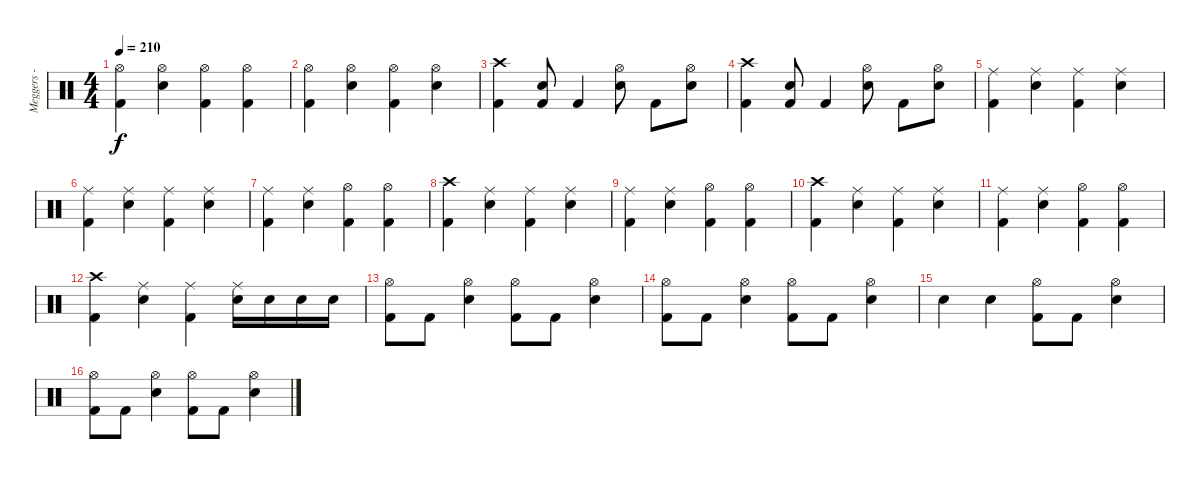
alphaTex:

\track ("Meggers - Drums" "Meggers - ") {instrument percussion}
\staff {score}
\articulation defaults
\ts (4 4)
\tempo 210
\clef neutral
\ks c
("Hi-Hat (open)" "Kick (hit) 2").4{dy f} ("Hi-Hat (open)" "Electric Snare (hit)").4 ("Hi-Hat (open)" "Kick (hit) 2").4 ("Hi-Hat (open)" "Kick (hit) 2").4 |
("Hi-Hat (open)" "Kick (hit) 2").4 ("Hi-Hat (open)" "Electric Snare (hit)").4 ("Hi-Hat (open)" "Kick (hit) 2").4 ("Hi-Hat (open)" "Electric Snare (hit)").4 |
("Crash high (hit)" "Kick (hit) 2").4 ("Electric Snare (hit)" "Kick (hit) 2").8 "Kick (hit) 2".4 ("Hi-Hat (open)" "Electric Snare (hit)").8 "Kick (hit) 2".8 ("Hi-Hat (open)" "Electric Snare (hit)").8 |
("Crash high (hit)" "Kick (hit) 2").4 ("Electric Snare (hit)" "Kick (hit) 2").8 "Kick (hit) 2".4 ("Hi-Hat (open)" "Electric Snare (hit)").8 "Kick (hit) 2".8 ("Hi-Hat (open)" "Electric Snare (hit)").8 |
("Ride (middle)" "Kick (hit) 2").4 ("Ride (middle)" "Electric Snare (hit)").4 ("Ride (middle)" "Kick (hit) 2").4 ("Ride (middle)" "Electric Snare (hit)").4 |
("Ride (middle)" "Kick (hit) 2").4 ("Ride (middle)" "Electric Snare (hit)").4 ("Ride (middle)" "Kick (hit) 2").4 ("Ride (middle)" "Electric Snare (hit)").4 |
("Ride (middle)" "Kick (hit) 2").4 ("Ride (middle)" "Electric Snare (hit)").4 ("Hi-Hat (open)" "Kick (hit) 2").4 ("Hi-Hat (open)" "Kick (hit) 2").4 |
("Crash high (hit)" "Kick (hit) 2").4 ("Ride (middle)" "Electric Snare (hit)").4 ("Ride (middle)" "Kick (hit) 2").4 ("Ride (middle)" "Electric Snare (hit)").4 |
("Ride (middle)" "Kick (hit) 2").4 ("Ride (middle)" "Electric Snare (hit)").4 ("Hi-Hat (open)" "Kick (hit) 2").4 ("Hi-Hat (open)" "Kick (hit) 2").4 |
("Crash high (hit)" "Kick (hit) 2").4 ("Ride (middle)" "Electric Snare (hit)").4 ("Ride (middle)" "Kick (hit) 2").4 ("Ride (middle)" "Electric Snare (hit)").4 |
("Ride (middle)" "Kick (hit) 2").4 ("Ride (middle)" "Electric Snare (hit)").4 ("Hi-Hat (open)" "Kick (hit) 2").4 ("Hi-Hat (open)" "Kick (hit) 2").4 |
("Crash high (hit)" "Kick (hit) 2").4 ("Ride (middle)" "Electric Snare (hit)").4 ("Ride (middle)" "Kick (hit) 2").4 ("Ride (middle)" "Electric Snare (hit)").16 "Electric Snare (hit)".16 "Electric Snare (hit)".16 "Electric Snare (hit)".16 |
("Hi-Hat (open)" "Kick (hit) 2").8 "Kick (hit) 2".8 ("Hi-Hat (open)" "Electric Snare (hit)").4 ("Hi-Hat (open)" "Kick (hit) 2").8 "Kick (hit) 2".8 ("Hi-Hat (open)" "Electric Snare (hit)").4 |
("Hi-Hat (open)" "Kick (hit) 2").8 "Kick (hit) 2".8 ("Hi-Hat (open)" "Electric Snare (hit)").4 ("Hi-Hat (open)" "Kick (hit) 2").8 "Kick (hit) 2".8 ("Hi-Hat (open)" "Electric Snare (hit)").4 |
"Electric Snare (hit)".4 "Electric Snare (hit)".4 ("Hi-Hat (open)" "Kick (hit) 2").8 "Kick (hit) 2".8 ("Hi-Hat (open)" "Electric Snare (hit)").4 |
("Hi-Hat (open)" "Kick (hit) 2").8 "Kick (hit) 2".8 ("Hi-Hat (open)" "Electric Snare (hit)").4 ("Hi-Hat (open)" "Kick (hit) 2").8 "Kick (hit) 2".8 ("Hi-Hat (open)" "Electric Snare (hit)").4
